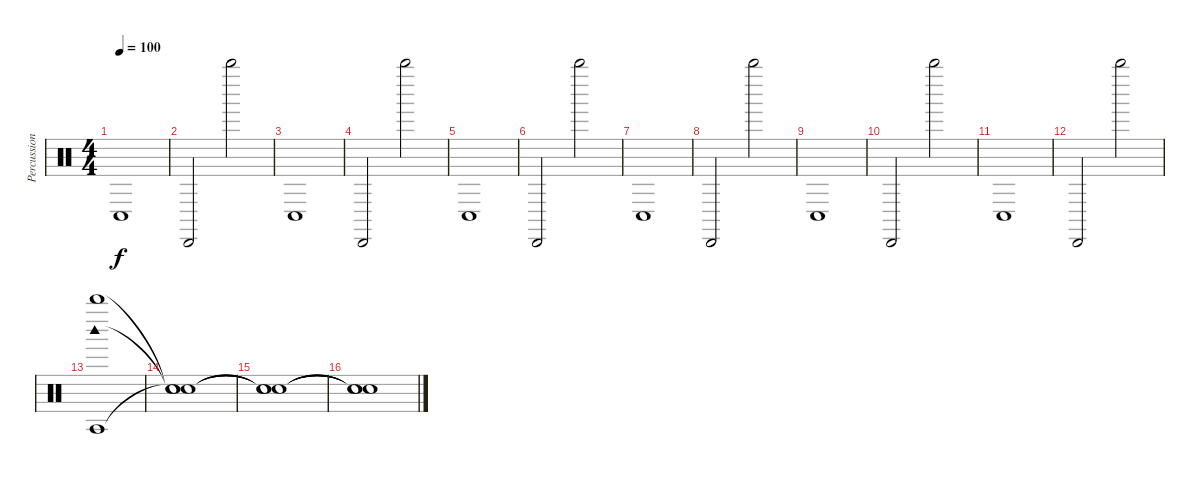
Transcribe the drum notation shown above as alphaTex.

\track ("Percussion Organ" "Percussion") {instrument percussion}
\staff {score}
\articulation defaults
\ts (4 4)
\tempo 100
\clef neutral
\ks c "Conga low (hit)".1{dy f}
|
"Cabasa (hit)".2 "Whistle high (hit)".2 |
"Conga low (hit)".1 |
"Cabasa (hit)".2 "Whistle high (hit)".2 |
"Conga low (hit)".1 |
"Cabasa (hit)".2 "Whistle high (hit)".2 |
"Conga low (hit)".1 |
"Cabasa (hit)".2 "Whistle high (hit)".2 |
"Conga low (hit)".1 |
"Cabasa (hit)".2 "Whistle high (hit)".2 |
"Conga low (hit)".1 |
"Cabasa (hit)".2 "Whistle high (hit)".2 |
("Agogo tow (hit)" "Whistle high (hit)" "Woodblock high (hit)").1 |
("Snare (hit)"{t} "Snare (hit)"{t} "Snare (hit)"{t}).1 |
("Snare (hit)"{t} "Snare (hit)"{t} "Snare (hit)"{t}).1 |
("Snare (hit)"{t} "Snare (hit)"{t} "Snare (hit)"{t}).1
